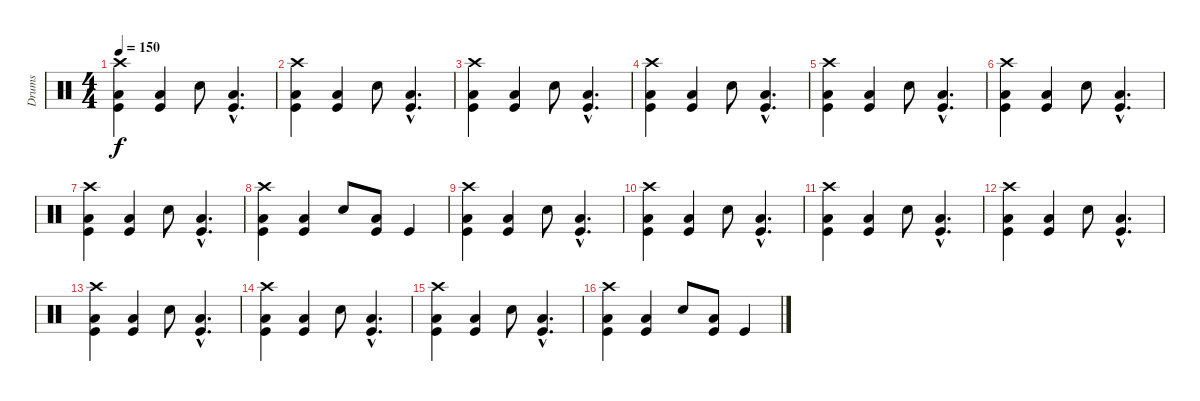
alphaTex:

\track ("Drums" "Drums") {instrument percussion}
\staff {score}
\articulation defaults
\ts (4 4)
\tempo 150
\clef neutral
\ks c
("Crash high (hit)" "Low Floor Tom (hit)" "Kick (hit)").4{dy f} ("Low Floor Tom (hit)" "Kick (hit)").4 "Snare (hit) 2".8 ("Low Floor Tom (hit)"{hac} "Kick (hit)"{hac}).4{d} |
("Crash high (hit)" "Low Floor Tom (hit)" "Kick (hit)").4 ("Low Floor Tom (hit)" "Kick (hit)").4 "Snare (hit) 2".8 ("Low Floor Tom (hit)"{hac} "Kick (hit)"{hac}).4{d} |
("Crash high (hit)" "Low Floor Tom (hit)" "Kick (hit)").4 ("Low Floor Tom (hit)" "Kick (hit)").4 "Snare (hit) 2".8 ("Low Floor Tom (hit)"{hac} "Kick (hit)"{hac}).4{d} |
("Crash high (hit)" "Low Floor Tom (hit)" "Kick (hit)").4 ("Low Floor Tom (hit)" "Kick (hit)").4 "Snare (hit) 2".8 ("Low Floor Tom (hit)"{hac} "Kick (hit)"{hac}).4{d} |
("Crash high (hit)" "Low Floor Tom (hit)" "Kick (hit)").4 ("Low Floor Tom (hit)" "Kick (hit)").4 "Snare (hit) 2".8 ("Low Floor Tom (hit)"{hac} "Kick (hit)"{hac}).4{d} |
("Crash high (hit)" "Low Floor Tom (hit)" "Kick (hit)").4 ("Low Floor Tom (hit)" "Kick (hit)").4 "Snare (hit) 2".8 ("Low Floor Tom (hit)"{hac} "Kick (hit)"{hac}).4{d} |
("Crash high (hit)" "Low Floor Tom (hit)" "Kick (hit)").4 ("Low Floor Tom (hit)" "Kick (hit)").4 "Snare (hit) 2".8 ("Low Floor Tom (hit)"{hac} "Kick (hit)"{hac}).4{d} |
("Crash high (hit)" "Low Floor Tom (hit)" "Kick (hit)").4 ("Low Floor Tom (hit)" "Kick (hit)").4 "Snare (hit) 2".8 ("Low Floor Tom (hit)" "Kick (hit)").8 "Kick (hit)".4 |
("Crash high (hit)" "Low Floor Tom (hit)" "Kick (hit)").4 ("Low Floor Tom (hit)" "Kick (hit)").4 "Snare (hit) 2".8 ("Low Floor Tom (hit)"{hac} "Kick (hit)"{hac}).4{d} |
("Crash high (hit)" "Low Floor Tom (hit)" "Kick (hit)").4 ("Low Floor Tom (hit)" "Kick (hit)").4 "Snare (hit) 2".8 ("Low Floor Tom (hit)"{hac} "Kick (hit)"{hac}).4{d} |
("Crash high (hit)" "Low Floor Tom (hit)" "Kick (hit)").4 ("Low Floor Tom (hit)" "Kick (hit)").4 "Snare (hit) 2".8 ("Low Floor Tom (hit)"{hac} "Kick (hit)"{hac}).4{d} |
("Crash high (hit)" "Low Floor Tom (hit)" "Kick (hit)").4 ("Low Floor Tom (hit)" "Kick (hit)").4 "Snare (hit) 2".8 ("Low Floor Tom (hit)"{hac} "Kick (hit)"{hac}).4{d} |
("Crash high (hit)" "Low Floor Tom (hit)" "Kick (hit)").4 ("Low Floor Tom (hit)" "Kick (hit)").4 "Snare (hit) 2".8 ("Low Floor Tom (hit)"{hac} "Kick (hit)"{hac}).4{d} |
("Crash high (hit)" "Low Floor Tom (hit)" "Kick (hit)").4 ("Low Floor Tom (hit)" "Kick (hit)").4 "Snare (hit) 2".8 ("Low Floor Tom (hit)"{hac} "Kick (hit)"{hac}).4{d} |
("Crash high (hit)" "Low Floor Tom (hit)" "Kick (hit)").4 ("Low Floor Tom (hit)" "Kick (hit)").4 "Snare (hit) 2".8 ("Low Floor Tom (hit)"{hac} "Kick (hit)"{hac}).4{d} |
("Crash high (hit)" "Low Floor Tom (hit)" "Kick (hit)").4 ("Low Floor Tom (hit)" "Kick (hit)").4 "Snare (hit) 2".8 ("Low Floor Tom (hit)" "Kick (hit)").8 "Kick (hit)".4
